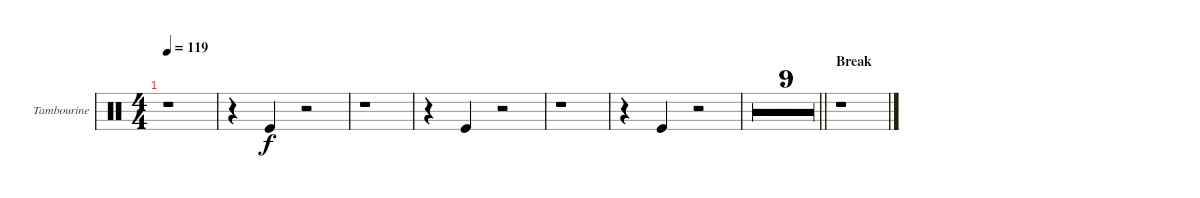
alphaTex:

\defaultSystemsLayout 4
\bracketExtendMode groupsimilarinstruments
\useSystemSignSeparator
\multiBarRest
\multiTrackTrackNamePolicy allsystems
\firstSystemTrackNameMode fullname
\firstSystemTrackNameOrientation horizontal
\otherSystemsTrackNameOrientation horizontal
\defaultBarNumberDisplay FirstOfSystem
\track ("Tambourine" "Tamb.") {multiBarRest instrument percussion}
\staff {score}
\articulation defaults
\ts (4 4)
\tempo 119
\clef neutral
\ks aminor
r.1{dy f} |
r.4 "Kick (hit)".4 r.2 |
r.1 |
r.4 "Kick (hit)".4 r.2 |
r.1 |
r.4 "Kick (hit)".4 r.2 |
\barLineRight lightlight
r.1 |
r.1 |
r.1 |
r.1 |
r.1 |
r.1 |
r.1 |
r.1 |
\barLineRight lightlight
r.1 |
\section ("" "Break")
r.1
